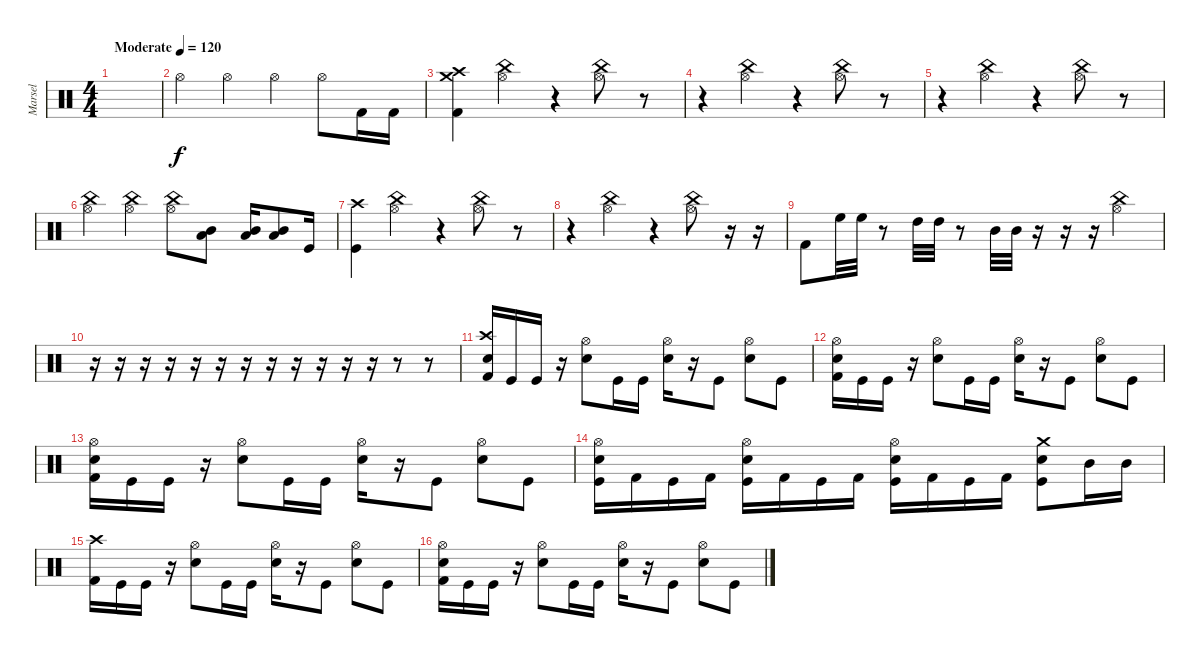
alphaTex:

\track ("Marsel" "Marsel") {instrument percussion}
\staff {score}
\articulation defaults
\ts (4 4)
\tempo (120 "Moderate")
\clef neutral
\ks c
|
"Hi-Hat (open)".4 "Hi-Hat (open)".4 "Hi-Hat (open)".4 "Hi-Hat (open)".8 "Kick (hit) 2".16 "Kick (hit) 2".16 |
("Crash high (hit)" "Crash medium (hit)" "Kick (hit) 2").4 ("China (hit)" "Hi-Hat (open)").4 r.4 ("China (hit)" "Hi-Hat (open)").8 r.8 |
r.4 ("China (hit)" "Hi-Hat (open)").4 r.4 ("China (hit)" "Hi-Hat (open)").8 r.8 |
r.4 ("China (hit)" "Hi-Hat (open)").4 r.4 ("China (hit)" "Hi-Hat (open)").8 r.8 |
("China (hit)" "Hi-Hat (open)").4 ("China (hit)" "Hi-Hat (open)").4 ("China (hit)" "Hi-Hat (open)").8 ("Mid Tom (hit)" "Low Tom (hit)").8 ("Mid Tom (hit)" "Low Tom (hit)").16 ("Mid Tom (hit)" "Low Tom (hit)").8 "Kick (hit)".16 |
("Crash high (hit)" "Kick (hit)").4 ("China (hit)" "Hi-Hat (open)").4 r.4 ("China (hit)" "Hi-Hat (open)").8 r.8 |
r.4 ("China (hit)" "Hi-Hat (open)").4 r.4 ("China (hit)" "Hi-Hat (open)").8 r.16 r.16 |
"Kick (hit) 2".8 "High Floor Tom (hit)".32 "High Floor Tom (hit)".32 r.8 "High Tom (hit)".32 "High Tom (hit)".32 r.8 "Mid Tom (hit)".32 "Mid Tom (hit)".32 r.16 r.16 r.16 ("China (hit)" "Hi-Hat (open)").4 |
r.16 r.16 r.16 r.16 r.16 r.16 r.16 r.16 r.16 r.16 r.16 r.16 r.8 r.8 |
("Crash high (hit)" "Snare (hit) 2" "Kick (hit) 2").16 "Kick (hit)".16 "Kick (hit)".16 r.16 ("Hi-Hat (open)" "Snare (hit) 2").8 "Kick (hit)".16 "Kick (hit)".16 ("Hi-Hat (open)" "Snare (hit) 2").16 r.16 "Kick (hit)".8 ("Hi-Hat (open)" "Snare (hit) 2").8 "Kick (hit)".8 |
("Hi-Hat (open)" "Snare (hit) 2" "Kick (hit) 2").16 "Kick (hit)".16 "Kick (hit)".16 r.16 ("Hi-Hat (open)" "Snare (hit) 2").8 "Kick (hit)".16 "Kick (hit)".16 ("Hi-Hat (open)" "Snare (hit) 2").16 r.16 "Kick (hit)".8 ("Hi-Hat (open)" "Snare (hit) 2").8 "Kick (hit)".8 |
("Hi-Hat (open)" "Snare (hit) 2" "Kick (hit) 2").16 "Kick (hit)".16 "Kick (hit)".16 r.16 ("Hi-Hat (open)" "Snare (hit) 2").8 "Kick (hit)".16 "Kick (hit)".16 ("Hi-Hat (open)" "Snare (hit) 2").16 r.16 "Kick (hit)".8 ("Hi-Hat (open)" "Snare (hit) 2").8 "Kick (hit)".8 |
("Hi-Hat (open)" "Snare (hit) 2" "Kick (hit)").16 "Kick (hit) 2".16 "Kick (hit)".16 "Kick (hit) 2".16 ("Hi-Hat (open)" "Snare (hit) 2" "Kick (hit)").16 "Kick (hit) 2".16 "Kick (hit)".16 "Kick (hit) 2".16 ("Hi-Hat (open)" "Snare (hit) 2" "Kick (hit)").16 "Kick (hit) 2".16 "Kick (hit)".16 "Kick (hit) 2".16 ("Crash medium (hit)" "Snare (hit) 2" "Kick (hit)").8 "Mid Tom (hit)".16 "Mid Tom (hit)".16 |
("Crash high (hit)" "Kick (hit) 2").16 "Kick (hit)".16 "Kick (hit)".16 r.16 ("Hi-Hat (open)" "Snare (hit) 2").8 "Kick (hit)".16 "Kick (hit)".16 ("Hi-Hat (open)" "Snare (hit) 2").16 r.16 "Kick (hit)".8 ("Hi-Hat (open)" "Snare (hit) 2").8 "Kick (hit)".8 |
("Hi-Hat (open)" "Snare (hit) 2" "Kick (hit) 2").16 "Kick (hit)".16 "Kick (hit)".16 r.16 ("Hi-Hat (open)" "Snare (hit) 2").8 "Kick (hit)".16 "Kick (hit)".16 ("Hi-Hat (open)" "Snare (hit) 2").16 r.16 "Kick (hit)".8 ("Hi-Hat (open)" "Snare (hit) 2").8 "Kick (hit)".8
